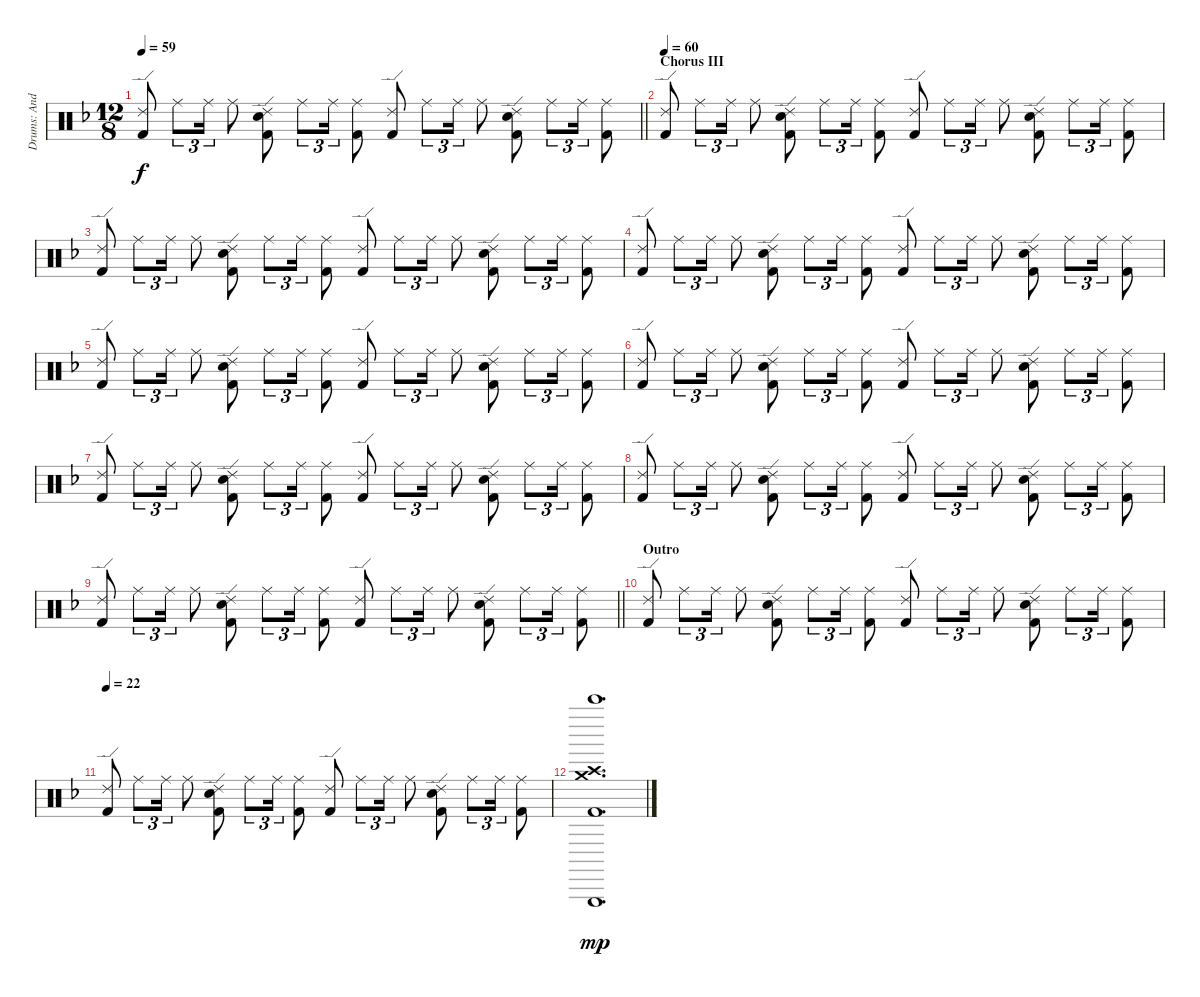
\track ("Drums: Andy" "Drums: And") {instrument percussion}
\staff {score}
\articulation defaults
\ts (12 8)
\tempo 59
\clef neutral
\barLineRight lightlight
\ks f
("Ride (edge) 2" "Kick (hit) 2").8{dy f} "Ride (middle)".8{tu (3 2)} "Ride (middle)".16{tu (3 2)} "Ride (middle)".8 ("Ride (edge) 2" "Electric Snare (hit)" "Kick (hit) 2").8 "Ride (middle)".8{tu (3 2)} "Ride (middle)".16{tu (3 2)} ("Ride (middle)" "Kick (hit) 2").8 ("Ride (edge) 2" "Kick (hit) 2").8 "Ride (middle)".8{tu (3 2)} "Ride (middle)".16{tu (3 2)} "Ride (middle)".8 ("Ride (edge) 2" "Electric Snare (hit)" "Kick (hit) 2").8 "Ride (middle)".8{tu (3 2)} "Ride (middle)".16{tu (3 2)} ("Ride (middle)" "Kick (hit) 2").8 |
\section ("" "Chorus III")
\tempo 60
("Ride (edge) 2" "Kick (hit) 2").8 "Ride (middle)".8{tu (3 2)} "Ride (middle)".16{tu (3 2)} "Ride (middle)".8 ("Ride (edge) 2" "Electric Snare (hit)" "Kick (hit) 2").8 "Ride (middle)".8{tu (3 2)} "Ride (middle)".16{tu (3 2)} ("Ride (middle)" "Kick (hit) 2").8 ("Ride (edge) 2" "Kick (hit) 2").8 "Ride (middle)".8{tu (3 2)} "Ride (middle)".16{tu (3 2)} "Ride (middle)".8 ("Ride (edge) 2" "Electric Snare (hit)" "Kick (hit) 2").8 "Ride (middle)".8{tu (3 2)} "Ride (middle)".16{tu (3 2)} ("Ride (middle)" "Kick (hit) 2").8 |
("Ride (edge) 2" "Kick (hit) 2").8 "Ride (middle)".8{tu (3 2)} "Ride (middle)".16{tu (3 2)} "Ride (middle)".8 ("Ride (edge) 2" "Electric Snare (hit)" "Kick (hit) 2").8 "Ride (middle)".8{tu (3 2)} "Ride (middle)".16{tu (3 2)} ("Ride (middle)" "Kick (hit) 2").8 ("Ride (edge) 2" "Kick (hit) 2").8 "Ride (middle)".8{tu (3 2)} "Ride (middle)".16{tu (3 2)} "Ride (middle)".8 ("Ride (edge) 2" "Electric Snare (hit)" "Kick (hit) 2").8 "Ride (middle)".8{tu (3 2)} "Ride (middle)".16{tu (3 2)} ("Ride (middle)" "Kick (hit) 2").8 |
("Ride (edge) 2" "Kick (hit) 2").8 "Ride (middle)".8{tu (3 2)} "Ride (middle)".16{tu (3 2)} "Ride (middle)".8 ("Ride (edge) 2" "Electric Snare (hit)" "Kick (hit) 2").8 "Ride (middle)".8{tu (3 2)} "Ride (middle)".16{tu (3 2)} ("Ride (middle)" "Kick (hit) 2").8 ("Ride (edge) 2" "Kick (hit) 2").8 "Ride (middle)".8{tu (3 2)} "Ride (middle)".16{tu (3 2)} "Ride (middle)".8 ("Ride (edge) 2" "Electric Snare (hit)" "Kick (hit) 2").8 "Ride (middle)".8{tu (3 2)} "Ride (middle)".16{tu (3 2)} ("Ride (middle)" "Kick (hit) 2").8 |
("Ride (edge) 2" "Kick (hit) 2").8 "Ride (middle)".8{tu (3 2)} "Ride (middle)".16{tu (3 2)} "Ride (middle)".8 ("Ride (edge) 2" "Electric Snare (hit)" "Kick (hit) 2").8 "Ride (middle)".8{tu (3 2)} "Ride (middle)".16{tu (3 2)} ("Ride (middle)" "Kick (hit) 2").8 ("Ride (edge) 2" "Kick (hit) 2").8 "Ride (middle)".8{tu (3 2)} "Ride (middle)".16{tu (3 2)} "Ride (middle)".8 ("Ride (edge) 2" "Electric Snare (hit)" "Kick (hit) 2").8 "Ride (middle)".8{tu (3 2)} "Ride (middle)".16{tu (3 2)} ("Ride (middle)" "Kick (hit) 2").8 |
("Ride (edge) 2" "Kick (hit) 2").8 "Ride (middle)".8{tu (3 2)} "Ride (middle)".16{tu (3 2)} "Ride (middle)".8 ("Ride (edge) 2" "Electric Snare (hit)" "Kick (hit) 2").8 "Ride (middle)".8{tu (3 2)} "Ride (middle)".16{tu (3 2)} ("Ride (middle)" "Kick (hit) 2").8 ("Ride (edge) 2" "Kick (hit) 2").8 "Ride (middle)".8{tu (3 2)} "Ride (middle)".16{tu (3 2)} "Ride (middle)".8 ("Ride (edge) 2" "Electric Snare (hit)" "Kick (hit) 2").8 "Ride (middle)".8{tu (3 2)} "Ride (middle)".16{tu (3 2)} ("Ride (middle)" "Kick (hit) 2").8 |
("Ride (edge) 2" "Kick (hit) 2").8 "Ride (middle)".8{tu (3 2)} "Ride (middle)".16{tu (3 2)} "Ride (middle)".8 ("Ride (edge) 2" "Electric Snare (hit)" "Kick (hit) 2").8 "Ride (middle)".8{tu (3 2)} "Ride (middle)".16{tu (3 2)} ("Ride (middle)" "Kick (hit) 2").8 ("Ride (edge) 2" "Kick (hit) 2").8 "Ride (middle)".8{tu (3 2)} "Ride (middle)".16{tu (3 2)} "Ride (middle)".8 ("Ride (edge) 2" "Electric Snare (hit)" "Kick (hit) 2").8 "Ride (middle)".8{tu (3 2)} "Ride (middle)".16{tu (3 2)} ("Ride (middle)" "Kick (hit) 2").8 |
("Ride (edge) 2" "Kick (hit) 2").8 "Ride (middle)".8{tu (3 2)} "Ride (middle)".16{tu (3 2)} "Ride (middle)".8 ("Ride (edge) 2" "Electric Snare (hit)" "Kick (hit) 2").8 "Ride (middle)".8{tu (3 2)} "Ride (middle)".16{tu (3 2)} ("Ride (middle)" "Kick (hit) 2").8 ("Ride (edge) 2" "Kick (hit) 2").8 "Ride (middle)".8{tu (3 2)} "Ride (middle)".16{tu (3 2)} "Ride (middle)".8 ("Ride (edge) 2" "Electric Snare (hit)" "Kick (hit) 2").8 "Ride (middle)".8{tu (3 2)} "Ride (middle)".16{tu (3 2)} ("Ride (middle)" "Kick (hit) 2").8 |
\barLineRight lightlight
("Ride (edge) 2" "Kick (hit) 2").8 "Ride (middle)".8{tu (3 2)} "Ride (middle)".16{tu (3 2)} "Ride (middle)".8 ("Ride (edge) 2" "Electric Snare (hit)" "Kick (hit) 2").8 "Ride (middle)".8{tu (3 2)} "Ride (middle)".16{tu (3 2)} ("Ride (middle)" "Kick (hit) 2").8 ("Ride (edge) 2" "Kick (hit) 2").8 "Ride (middle)".8{tu (3 2)} "Ride (middle)".16{tu (3 2)} "Ride (middle)".8 ("Ride (edge) 2" "Electric Snare (hit)" "Kick (hit) 2").8 "Ride (middle)".8{tu (3 2)} "Ride (middle)".16{tu (3 2)} ("Ride (middle)" "Kick (hit) 2").8 |
\section ("" "Outro")
("Ride (edge) 2" "Kick (hit) 2").8 "Ride (middle)".8{tu (3 2)} "Ride (middle)".16{tu (3 2)} "Ride (middle)".8 ("Ride (edge) 2" "Electric Snare (hit)" "Kick (hit) 2").8 "Ride (middle)".8{tu (3 2)} "Ride (middle)".16{tu (3 2)} ("Ride (middle)" "Kick (hit) 2").8 ("Ride (edge) 2" "Kick (hit) 2").8 "Ride (middle)".8{tu (3 2)} "Ride (middle)".16{tu (3 2)} "Ride (middle)".8 ("Ride (edge) 2" "Electric Snare (hit)" "Kick (hit) 2").8 "Ride (middle)".8{tu (3 2)} "Ride (middle)".16{tu (3 2)} ("Ride (middle)" "Kick (hit) 2").8 |
\tempo 22
("Ride (edge) 2" "Kick (hit) 2").8 "Ride (middle)".8{tu (3 2)} "Ride (middle)".16{tu (3 2)} "Ride (middle)".8 ("Ride (edge) 2" "Electric Snare (hit)" "Kick (hit) 2").8 "Ride (middle)".8{tu (3 2)} "Ride (middle)".16{tu (3 2)} ("Ride (middle)" "Kick (hit) 2").8 ("Ride (edge) 2" "Kick (hit) 2").8 "Ride (middle)".8{tu (3 2)} "Ride (middle)".16{tu (3 2)} "Ride (middle)".8 ("Ride (edge) 2" "Electric Snare (hit)" "Kick (hit) 2").8 "Ride (middle)".8{tu (3 2)} "Ride (middle)".16{tu (3 2)} ("Ride (middle)" "Kick (hit) 2").8 |
("Bell Tree (hit)" "Triangle (hit)" "Crash high (hit)" "Crash medium (hit)" "Kick (hit) 2").1{d dy mp}
